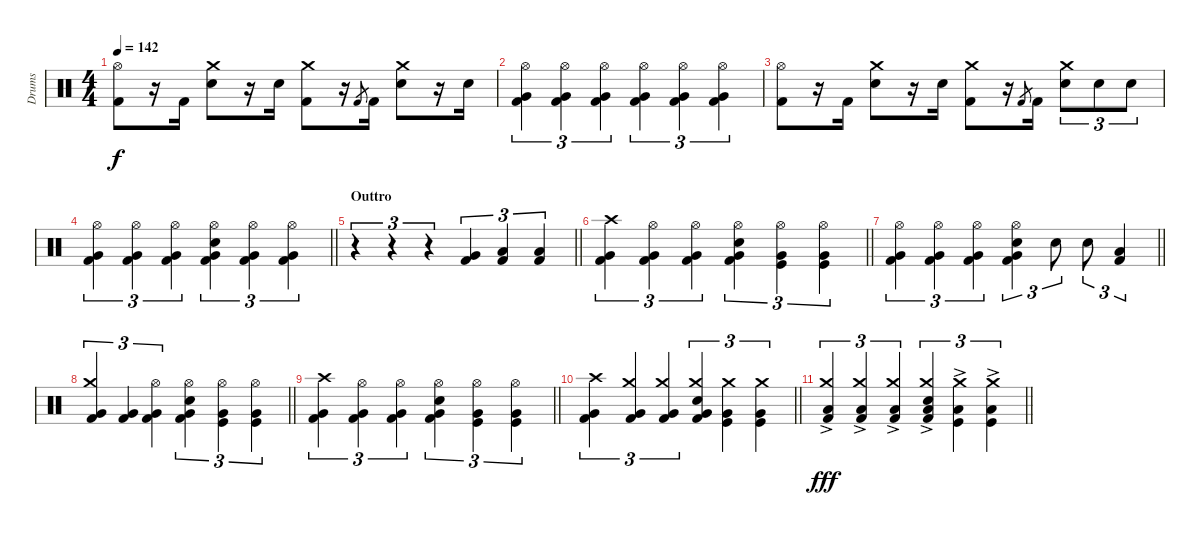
\track ("Drums" "Drums") {instrument percussion}
\staff {score}
\articulation defaults
\ts (4 4)
\tempo 142
\clef neutral
\ks c
("Hi-Hat (open)" "Kick (hit) 2").8{dy f} r.16 "Kick (hit) 2".16 ("Crash medium (hit)" "Electric Snare (hit)").8 r.16 "Electric Snare (hit)".16 ("Crash medium (hit)" "Kick (hit) 2").8 r.16 "Kick (hit) 2".8{gr} "Kick (hit) 2".16 ("Crash medium (hit)" "Electric Snare (hit)").8 r.16 "Electric Snare (hit)".16 |
("Hi-Hat (open)" "Very Low Tom (hit)" "Kick (hit) 2").4{tu (3 2)} ("Hi-Hat (open)" "Very Low Tom (hit)" "Kick (hit) 2").4{tu (3 2)} ("Hi-Hat (open)" "Very Low Tom (hit)" "Kick (hit) 2").4{tu (3 2)} ("Hi-Hat (open)" "Very Low Tom (hit)" "Kick (hit) 2").4{tu (3 2)} ("Hi-Hat (open)" "Very Low Tom (hit)" "Kick (hit) 2").4{tu (3 2)} ("Hi-Hat (open)" "Very Low Tom (hit)" "Kick (hit) 2").4{tu (3 2)} |
("Hi-Hat (open)" "Kick (hit) 2").8 r.16 "Kick (hit) 2".16 ("Crash medium (hit)" "Electric Snare (hit)").8 r.16 "Electric Snare (hit)".16 ("Crash medium (hit)" "Kick (hit) 2").8 r.16 "Kick (hit) 2".8{gr} "Kick (hit) 2".16 ("Crash medium (hit)" "Electric Snare (hit)").8{tu (3 2)} "Electric Snare (hit)".8{tu (3 2)} "Electric Snare (hit)".8{tu (3 2)} |
\barLineRight lightlight
("Hi-Hat (open)" "Very Low Tom (hit)" "Kick (hit) 2").4{tu (3 2)} ("Hi-Hat (open)" "Very Low Tom (hit)" "Kick (hit) 2").4{tu (3 2)} ("Hi-Hat (open)" "Very Low Tom (hit)" "Kick (hit) 2").4{tu (3 2)} ("Hi-Hat (open)" "Electric Snare (hit)" "Very Low Tom (hit)" "Kick (hit) 2").4{tu (3 2)} ("Hi-Hat (open)" "Very Low Tom (hit)" "Kick (hit) 2").4{tu (3 2)} ("Hi-Hat (open)" "Very Low Tom (hit)" "Kick (hit) 2").4{tu (3 2)} |
\section ("" "Outtro")
\barLineRight lightlight
r.4{tu (3 2)} r.4{tu (3 2)} r.4{tu (3 2)} ("Very Low Tom (hit)" "Kick (hit) 2").4{tu (3 2)} ("Low Floor Tom (hit)" "Kick (hit) 2").4{tu (3 2)} ("Low Floor Tom (hit)" "Kick (hit) 2").4{tu (3 2)} |
\barLineRight lightlight
("Crash high (hit)" "Very Low Tom (hit)" "Kick (hit) 2").4{tu (3 2)} ("Hi-Hat (open)" "Very Low Tom (hit)" "Kick (hit) 2").4{tu (3 2)} ("Hi-Hat (open)" "Very Low Tom (hit)" "Kick (hit) 2").4{tu (3 2)} ("Hi-Hat (open)" "Electric Snare (hit)" "Very Low Tom (hit)" "Kick (hit) 2").4{tu (3 2)} ("Hi-Hat (open)" "Very Low Tom (hit)" "Kick (hit)").4{tu (3 2)} ("Hi-Hat (open)" "Very Low Tom (hit)" "Kick (hit)").4{tu (3 2)} |
\barLineRight lightlight
("Hi-Hat (open)" "Very Low Tom (hit)" "Kick (hit) 2").4{tu (3 2)} ("Hi-Hat (open)" "Very Low Tom (hit)" "Kick (hit) 2").4{tu (3 2)} ("Hi-Hat (open)" "Very Low Tom (hit)" "Kick (hit) 2").4{tu (3 2)} ("Hi-Hat (open)" "Electric Snare (hit)" "Very Low Tom (hit)" "Kick (hit) 2").4{tu (3 2)} "Electric Snare (hit)".8{tu (3 2)} "Electric Snare (hit)".8{tu (3 2)} ("Low Floor Tom (hit)" "Kick (hit) 2").4{tu (3 2)} |
\barLineRight lightlight
("Crash medium (hit)" "Very Low Tom (hit)" "Kick (hit) 2").4{tu (3 2)} ("Very Low Tom (hit)" "Kick (hit) 2").4{tu (3 2)} ("Hi-Hat (open)" "Very Low Tom (hit)" "Kick (hit) 2").4{tu (3 2)} ("Hi-Hat (open)" "Electric Snare (hit)" "Very Low Tom (hit)" "Kick (hit) 2").4{tu (3 2)} ("Hi-Hat (open)" "Very Low Tom (hit)" "Kick (hit)").4{tu (3 2)} ("Hi-Hat (open)" "Very Low Tom (hit)" "Kick (hit)").4{tu (3 2)} |
\barLineRight lightlight
("Crash high (hit)" "Very Low Tom (hit)" "Kick (hit) 2").4{tu (3 2)} ("Hi-Hat (open)" "Very Low Tom (hit)" "Kick (hit) 2").4{tu (3 2)} ("Hi-Hat (open)" "Very Low Tom (hit)" "Kick (hit) 2").4{tu (3 2)} ("Hi-Hat (open)" "Electric Snare (hit)" "Very Low Tom (hit)" "Kick (hit) 2").4{tu (3 2)} ("Hi-Hat (open)" "Very Low Tom (hit)" "Kick (hit)").4{tu (3 2)} ("Hi-Hat (open)" "Very Low Tom (hit)" "Kick (hit)").4{tu (3 2)} |
\barLineRight lightlight
("Crash high (hit)" "Very Low Tom (hit)" "Kick (hit) 2").4{tu (3 2)} ("Crash medium (hit)" "Very Low Tom (hit)" "Kick (hit) 2").4{tu (3 2)} ("Crash medium (hit)" "Very Low Tom (hit)" "Kick (hit) 2").4{tu (3 2)} ("Crash medium (hit)" "Electric Snare (hit)" "Very Low Tom (hit)" "Kick (hit) 2").4{tu (3 2)} ("Crash medium (hit)" "Very Low Tom (hit)" "Kick (hit)").4{tu (3 2)} ("Crash medium (hit)" "Very Low Tom (hit)" "Kick (hit)").4{tu (3 2)} |
\barLineRight lightlight
("Crash medium (hit)" "Low Floor Tom (hit)"{ac} "Kick (hit) 2").4{tu (3 2) dy fff} ("Crash medium (hit)" "Low Floor Tom (hit)"{ac} "Kick (hit) 2").4{tu (3 2)} ("Crash medium (hit)" "Low Floor Tom (hit)"{ac} "Kick (hit) 2").4{tu (3 2)} ("Crash medium (hit)" "Electric Snare (hit)" "Low Floor Tom (hit)"{ac} "Kick (hit) 2").4{tu (3 2)} ("Crash medium (hit)" "Low Floor Tom (hit)"{ac} "Kick (hit)").4{tu (3 2)} ("Crash medium (hit)" "Low Floor Tom (hit)"{ac} "Kick (hit)").4{tu (3 2)}
